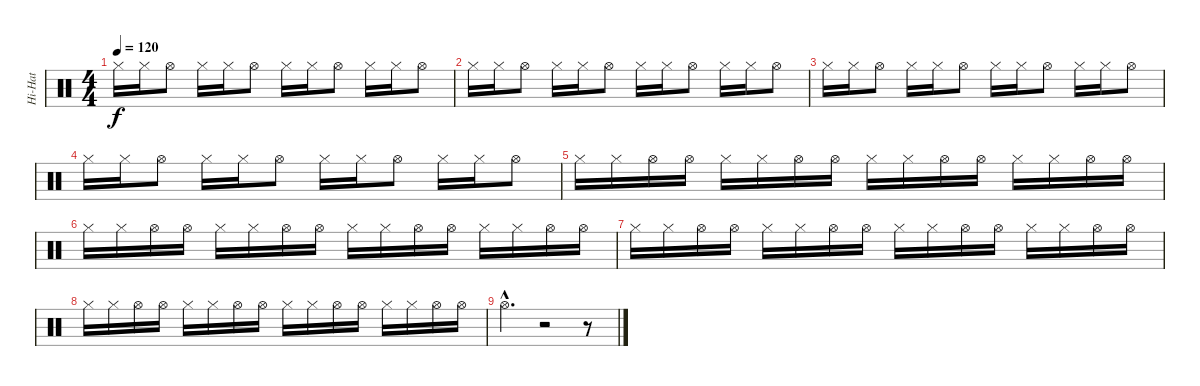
\track ("Hi-Hat" "Hi-Hat") {instrument percussion}
\staff {score}
\articulation defaults
\ts (4 4)
\tempo 120
\clef neutral
\ks c "Hi-Hat (closed)".16{dy f} "Hi-Hat (closed)".16 "Hi-Hat (open)".8 "Hi-Hat (closed)".16 "Hi-Hat (closed)".16 "Hi-Hat (open)".8 "Hi-Hat (closed)".16 "Hi-Hat (closed)".16 "Hi-Hat (open)".8 "Hi-Hat (closed)".16 "Hi-Hat (closed)".16 "Hi-Hat (open)".8
|
"Hi-Hat (closed)".16 "Hi-Hat (closed)".16 "Hi-Hat (open)".8 "Hi-Hat (closed)".16 "Hi-Hat (closed)".16 "Hi-Hat (open)".8 "Hi-Hat (closed)".16 "Hi-Hat (closed)".16 "Hi-Hat (open)".8 "Hi-Hat (closed)".16 "Hi-Hat (closed)".16 "Hi-Hat (open)".8 |
"Hi-Hat (closed)".16 "Hi-Hat (closed)".16 "Hi-Hat (open)".8 "Hi-Hat (closed)".16 "Hi-Hat (closed)".16 "Hi-Hat (open)".8 "Hi-Hat (closed)".16 "Hi-Hat (closed)".16 "Hi-Hat (open)".8 "Hi-Hat (closed)".16 "Hi-Hat (closed)".16 "Hi-Hat (open)".8 |
"Hi-Hat (closed)".16 "Hi-Hat (closed)".16 "Hi-Hat (open)".8 "Hi-Hat (closed)".16 "Hi-Hat (closed)".16 "Hi-Hat (open)".8 "Hi-Hat (closed)".16 "Hi-Hat (closed)".16 "Hi-Hat (open)".8 "Hi-Hat (closed)".16 "Hi-Hat (closed)".16 "Hi-Hat (open)".8 |
"Hi-Hat (closed)".16 "Hi-Hat (closed)".16 "Hi-Hat (open)".16 "Hi-Hat (open)".16 "Hi-Hat (closed)".16 "Hi-Hat (closed)".16 "Hi-Hat (open)".16 "Hi-Hat (open)".16 "Hi-Hat (closed)".16 "Hi-Hat (closed)".16 "Hi-Hat (open)".16 "Hi-Hat (open)".16 "Hi-Hat (closed)".16 "Hi-Hat (closed)".16 "Hi-Hat (open)".16 "Hi-Hat (open)".16 |
"Hi-Hat (closed)".16 "Hi-Hat (closed)".16 "Hi-Hat (open)".16 "Hi-Hat (open)".16 "Hi-Hat (closed)".16 "Hi-Hat (closed)".16 "Hi-Hat (open)".16 "Hi-Hat (open)".16 "Hi-Hat (closed)".16 "Hi-Hat (closed)".16 "Hi-Hat (open)".16 "Hi-Hat (open)".16 "Hi-Hat (closed)".16 "Hi-Hat (closed)".16 "Hi-Hat (open)".16 "Hi-Hat (open)".16 |
"Hi-Hat (closed)".16 "Hi-Hat (closed)".16 "Hi-Hat (open)".16 "Hi-Hat (open)".16 "Hi-Hat (closed)".16 "Hi-Hat (closed)".16 "Hi-Hat (open)".16 "Hi-Hat (open)".16 "Hi-Hat (closed)".16 "Hi-Hat (closed)".16 "Hi-Hat (open)".16 "Hi-Hat (open)".16 "Hi-Hat (closed)".16 "Hi-Hat (closed)".16 "Hi-Hat (open)".16 "Hi-Hat (open)".16 |
"Hi-Hat (closed)".16 "Hi-Hat (closed)".16 "Hi-Hat (open)".16 "Hi-Hat (open)".16 "Hi-Hat (closed)".16 "Hi-Hat (closed)".16 "Hi-Hat (open)".16 "Hi-Hat (open)".16 "Hi-Hat (closed)".16 "Hi-Hat (closed)".16 "Hi-Hat (open)".16 "Hi-Hat (open)".16 "Hi-Hat (closed)".16 "Hi-Hat (closed)".16 "Hi-Hat (open)".16 "Hi-Hat (open)".16 |
"Hi-Hat (open)"{hac}.4{d} r.2 r.8
